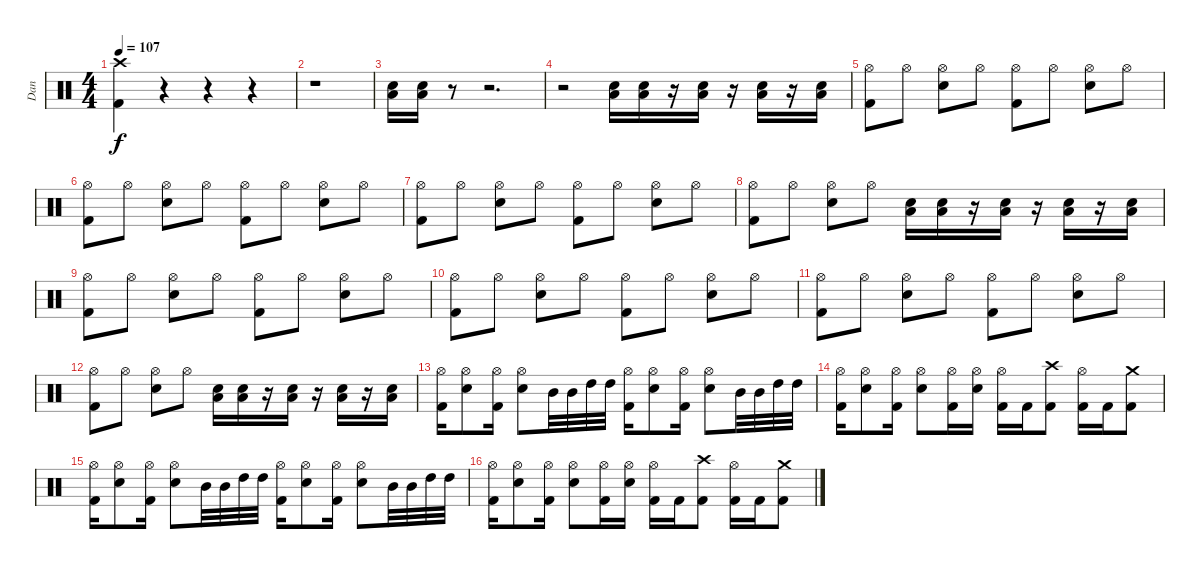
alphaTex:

\track ("Dan" "Dan") {instrument percussion}
\staff {score}
\articulation defaults
\ts (4 4)
\tempo 107
\clef neutral
\ks c
("Crash high (hit)" "Kick (hit) 2").4{dy f} r.4 r.4 r.4 |
r.1 |
("Low Floor Tom (hit)" "Electric Snare (hit)").16 ("Low Floor Tom (hit)" "Electric Snare (hit)").16 r.8 r.2{d} |
r.2 ("Low Floor Tom (hit)" "Electric Snare (hit)").16 ("Low Floor Tom (hit)" "Electric Snare (hit)").16 r.16 ("Low Floor Tom (hit)" "Electric Snare (hit)").16 r.16 ("Low Floor Tom (hit)" "Electric Snare (hit)").16 r.16 ("Low Floor Tom (hit)" "Electric Snare (hit)").16 |
("Kick (hit) 2" "Hi-Hat (open)").8 "Hi-Hat (open)".8 ("Electric Snare (hit)" "Hi-Hat (open)").8 "Hi-Hat (open)".8 ("Kick (hit) 2" "Hi-Hat (open)").8 "Hi-Hat (open)".8 ("Electric Snare (hit)" "Hi-Hat (open)").8 "Hi-Hat (open)".8 |
("Kick (hit) 2" "Hi-Hat (open)").8 "Hi-Hat (open)".8 ("Electric Snare (hit)" "Hi-Hat (open)").8 "Hi-Hat (open)".8 ("Kick (hit) 2" "Hi-Hat (open)").8 "Hi-Hat (open)".8 ("Electric Snare (hit)" "Hi-Hat (open)").8 "Hi-Hat (open)".8 |
("Kick (hit) 2" "Hi-Hat (open)").8 "Hi-Hat (open)".8 ("Electric Snare (hit)" "Hi-Hat (open)").8 "Hi-Hat (open)".8 ("Kick (hit) 2" "Hi-Hat (open)").8 "Hi-Hat (open)".8 ("Electric Snare (hit)" "Hi-Hat (open)").8 "Hi-Hat (open)".8 |
("Kick (hit) 2" "Hi-Hat (open)").8 "Hi-Hat (open)".8 ("Electric Snare (hit)" "Hi-Hat (open)").8 "Hi-Hat (open)".8 ("Low Floor Tom (hit)" "Electric Snare (hit)").16 ("Low Floor Tom (hit)" "Electric Snare (hit)").16 r.16 ("Low Floor Tom (hit)" "Electric Snare (hit)").16 r.16 ("Low Floor Tom (hit)" "Electric Snare (hit)").16 r.16 ("Low Floor Tom (hit)" "Electric Snare (hit)").16 |
("Kick (hit) 2" "Hi-Hat (open)").8 "Hi-Hat (open)".8 ("Electric Snare (hit)" "Hi-Hat (open)").8 "Hi-Hat (open)".8 ("Kick (hit) 2" "Hi-Hat (open)").8 "Hi-Hat (open)".8 ("Electric Snare (hit)" "Hi-Hat (open)").8 "Hi-Hat (open)".8 |
("Kick (hit) 2" "Hi-Hat (open)").8 "Hi-Hat (open)".8 ("Electric Snare (hit)" "Hi-Hat (open)").8 "Hi-Hat (open)".8 ("Kick (hit) 2" "Hi-Hat (open)").8 "Hi-Hat (open)".8 ("Electric Snare (hit)" "Hi-Hat (open)").8 "Hi-Hat (open)".8 |
("Kick (hit) 2" "Hi-Hat (open)").8 "Hi-Hat (open)".8 ("Electric Snare (hit)" "Hi-Hat (open)").8 "Hi-Hat (open)".8 ("Kick (hit) 2" "Hi-Hat (open)").8 "Hi-Hat (open)".8 ("Electric Snare (hit)" "Hi-Hat (open)").8 "Hi-Hat (open)".8 |
("Kick (hit) 2" "Hi-Hat (open)").8 "Hi-Hat (open)".8 ("Electric Snare (hit)" "Hi-Hat (open)").8 "Hi-Hat (open)".8 ("Low Floor Tom (hit)" "Electric Snare (hit)").16 ("Low Floor Tom (hit)" "Electric Snare (hit)").16 r.16 ("Low Floor Tom (hit)" "Electric Snare (hit)").16 r.16 ("Low Floor Tom (hit)" "Electric Snare (hit)").16 r.16 ("Low Floor Tom (hit)" "Electric Snare (hit)").16 |
("Kick (hit) 2" "Hi-Hat (open)").16 ("Electric Snare (hit)" "Hi-Hat (open)").8 ("Kick (hit) 2" "Hi-Hat (open)").16 ("Electric Snare (hit)" "Hi-Hat (open)").8 "Mid Tom (hit)".32 "Mid Tom (hit)".32 "High Tom (hit)".32 "High Tom (hit)".32 ("Kick (hit) 2" "Hi-Hat (open)").16 ("Electric Snare (hit)" "Hi-Hat (open)").8 ("Kick (hit) 2" "Hi-Hat (open)").16 ("Electric Snare (hit)" "Hi-Hat (open)").8 "Mid Tom (hit)".32 "Mid Tom (hit)".32 "High Tom (hit)".32 "High Tom (hit)".32 |
("Kick (hit) 2" "Hi-Hat (open)").16 ("Electric Snare (hit)" "Hi-Hat (open)").8 ("Kick (hit) 2" "Hi-Hat (open)").16 ("Electric Snare (hit)" "Hi-Hat (open)").8 ("Kick (hit) 2" "Hi-Hat (open)").16 ("Electric Snare (hit)" "Hi-Hat (open)").16 ("Hi-Hat (open)" "Kick (hit) 2").16 "Kick (hit) 2".16 ("Crash high (hit)" "Kick (hit) 2").8 ("Hi-Hat (open)" "Kick (hit) 2").16 "Kick (hit) 2".16 ("Crash medium (hit)" "Kick (hit) 2").8 |
("Kick (hit) 2" "Hi-Hat (open)").16 ("Electric Snare (hit)" "Hi-Hat (open)").8 ("Kick (hit) 2" "Hi-Hat (open)").16 ("Electric Snare (hit)" "Hi-Hat (open)").8 "Mid Tom (hit)".32 "Mid Tom (hit)".32 "High Tom (hit)".32 "High Tom (hit)".32 ("Kick (hit) 2" "Hi-Hat (open)").16 ("Electric Snare (hit)" "Hi-Hat (open)").8 ("Kick (hit) 2" "Hi-Hat (open)").16 ("Electric Snare (hit)" "Hi-Hat (open)").8 "Mid Tom (hit)".32 "Mid Tom (hit)".32 "High Tom (hit)".32 "High Tom (hit)".32 |
("Kick (hit) 2" "Hi-Hat (open)").16 ("Electric Snare (hit)" "Hi-Hat (open)").8 ("Kick (hit) 2" "Hi-Hat (open)").16 ("Electric Snare (hit)" "Hi-Hat (open)").8 ("Kick (hit) 2" "Hi-Hat (open)").16 ("Electric Snare (hit)" "Hi-Hat (open)").16 ("Hi-Hat (open)" "Kick (hit) 2").16 "Kick (hit) 2".16 ("Crash high (hit)" "Kick (hit) 2").8 ("Hi-Hat (open)" "Kick (hit) 2").16 "Kick (hit) 2".16 ("Crash medium (hit)" "Kick (hit) 2").8
